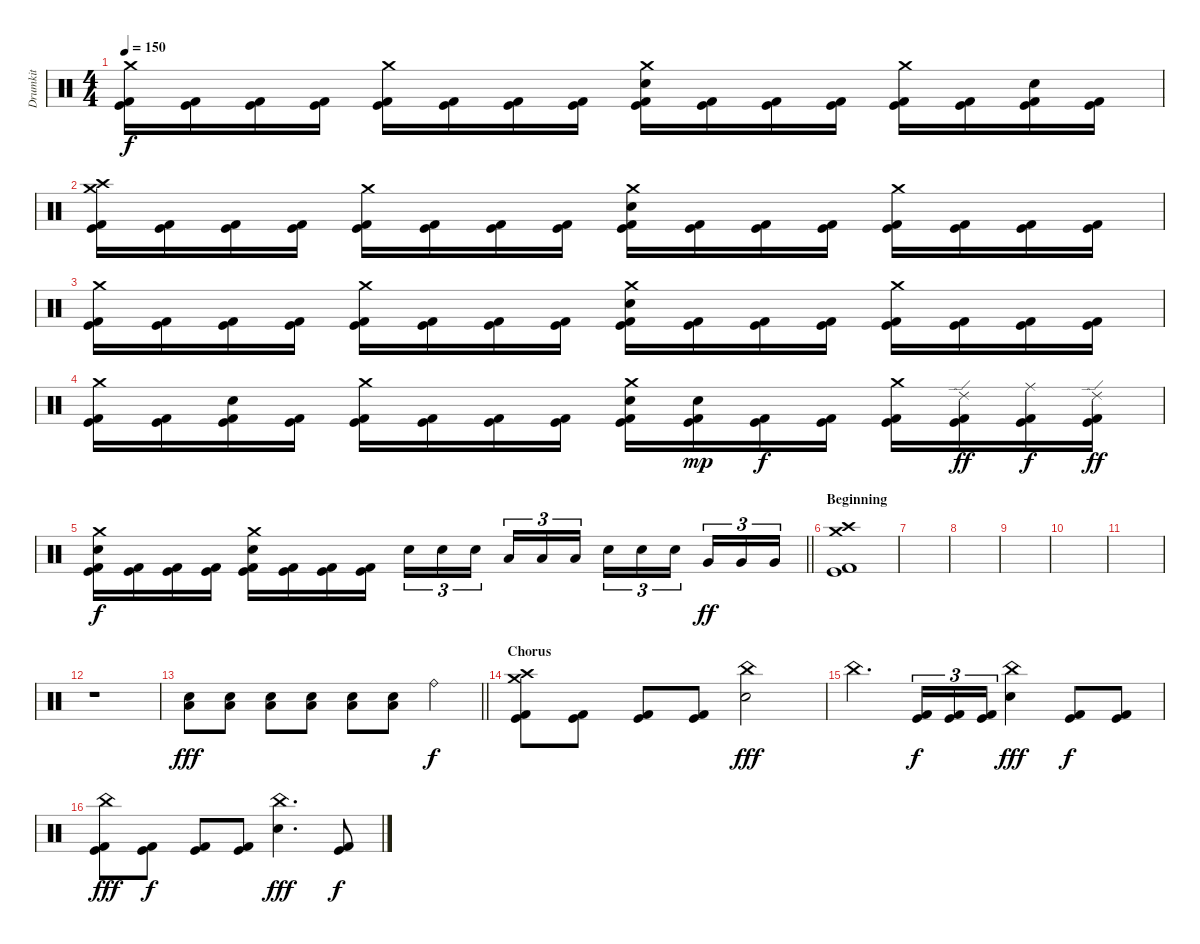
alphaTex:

\track ("Drumkit" "Drumkit") {instrument percussion}
\staff {score}
\articulation defaults
\ts (4 4)
\tempo 150
\clef neutral
\ks c
("Crash medium (hit)" "Kick (hit)" "Kick (hit) 2").16{dy f} ("Kick (hit)" "Kick (hit) 2").16 ("Kick (hit)" "Kick (hit) 2").16 ("Kick (hit)" "Kick (hit) 2").16 ("Crash medium (hit)" "Kick (hit)" "Kick (hit) 2").16 ("Kick (hit)" "Kick (hit) 2").16 ("Kick (hit)" "Kick (hit) 2").16 ("Kick (hit)" "Kick (hit) 2").16 ("Crash medium (hit)" "Electric Snare (hit)" "Kick (hit)" "Kick (hit) 2").16 ("Kick (hit)" "Kick (hit) 2").16 ("Kick (hit)" "Kick (hit) 2").16 ("Kick (hit)" "Kick (hit) 2").16 ("Crash medium (hit)" "Kick (hit)" "Kick (hit) 2").16 ("Kick (hit)" "Kick (hit) 2").16 ("Electric Snare (hit)" "Kick (hit)" "Kick (hit) 2").16 ("Kick (hit)" "Kick (hit) 2").16 |
("Crash high (hit)" "Crash medium (hit)" "Kick (hit)" "Kick (hit) 2").16 ("Kick (hit)" "Kick (hit) 2").16 ("Kick (hit)" "Kick (hit) 2").16 ("Kick (hit)" "Kick (hit) 2").16 ("Crash medium (hit)" "Kick (hit)" "Kick (hit) 2").16 ("Kick (hit)" "Kick (hit) 2").16 ("Kick (hit)" "Kick (hit) 2").16 ("Kick (hit)" "Kick (hit) 2").16 ("Crash medium (hit)" "Electric Snare (hit)" "Kick (hit)" "Kick (hit) 2").16 ("Kick (hit)" "Kick (hit) 2").16 ("Kick (hit)" "Kick (hit) 2").16 ("Kick (hit)" "Kick (hit) 2").16 ("Crash medium (hit)" "Kick (hit)" "Kick (hit) 2").16 ("Kick (hit)" "Kick (hit) 2").16 ("Kick (hit)" "Kick (hit) 2").16 ("Kick (hit)" "Kick (hit) 2").16 |
("Crash medium (hit)" "Kick (hit)" "Kick (hit) 2").16 ("Kick (hit)" "Kick (hit) 2").16 ("Kick (hit)" "Kick (hit) 2").16 ("Kick (hit)" "Kick (hit) 2").16 ("Crash medium (hit)" "Kick (hit)" "Kick (hit) 2").16 ("Kick (hit)" "Kick (hit) 2").16 ("Kick (hit)" "Kick (hit) 2").16 ("Kick (hit)" "Kick (hit) 2").16 ("Crash medium (hit)" "Electric Snare (hit)" "Kick (hit)" "Kick (hit) 2").16 ("Kick (hit)" "Kick (hit) 2").16 ("Kick (hit)" "Kick (hit) 2").16 ("Kick (hit)" "Kick (hit) 2").16 ("Crash medium (hit)" "Kick (hit)" "Kick (hit) 2").16 ("Kick (hit)" "Kick (hit) 2").16 ("Kick (hit)" "Kick (hit) 2").16 ("Kick (hit)" "Kick (hit) 2").16 |
("Crash medium (hit)" "Kick (hit)" "Kick (hit) 2").16 ("Kick (hit)" "Kick (hit) 2").16 ("Electric Snare (hit)" "Kick (hit)" "Kick (hit) 2").16 ("Kick (hit)" "Kick (hit) 2").16 ("Crash medium (hit)" "Kick (hit)" "Kick (hit) 2").16 ("Kick (hit)" "Kick (hit) 2").16 ("Kick (hit)" "Kick (hit) 2").16 ("Kick (hit)" "Kick (hit) 2").16 ("Crash medium (hit)" "Electric Snare (hit)" "Kick (hit)" "Kick (hit) 2").16 ("Electric Snare (hit)" "Kick (hit)" "Kick (hit) 2").16{dy mp} ("Kick (hit)" "Kick (hit) 2").16{dy f} ("Kick (hit)" "Kick (hit) 2").16 ("Crash medium (hit)" "Kick (hit)" "Kick (hit) 2").16 ("Ride (edge) 2" "Kick (hit)" "Kick (hit) 2").16{dy ff} ("Ride (middle)" "Kick (hit)" "Kick (hit) 2").16{dy f} ("Ride (edge) 2" "Kick (hit)" "Kick (hit) 2").16{dy ff} |
\barLineRight lightlight
("Crash medium (hit)" "Electric Snare (hit)" "Kick (hit)" "Kick (hit) 2").16{dy f} ("Kick (hit)" "Kick (hit) 2").16 ("Kick (hit)" "Kick (hit) 2").16 ("Kick (hit)" "Kick (hit) 2").16 ("Crash medium (hit)" "Electric Snare (hit)" "Kick (hit)" "Kick (hit) 2").16 ("Kick (hit)" "Kick (hit) 2").16 ("Kick (hit)" "Kick (hit) 2").16 ("Kick (hit)" "Kick (hit) 2").16 "Electric Snare (hit)".16{tu (3 2)} "Electric Snare (hit)".16{tu (3 2)} "Electric Snare (hit)".16{tu (3 2) beam splitsecondary} "Low Tom (hit)".16{tu (3 2)} "Low Tom (hit)".16{tu (3 2)} "Low Tom (hit)".16{tu (3 2)} "Electric Snare (hit)".16{tu (3 2)} "Electric Snare (hit)".16{tu (3 2)} "Electric Snare (hit)".16{tu (3 2) beam splitsecondary} "Very Low Tom (hit)".16{tu (3 2) dy ff} "Very Low Tom (hit)".16{tu (3 2)} "Very Low Tom (hit)".16{tu (3 2)} |
\section ("" "Beginning")
("Crash high (hit)" "Crash medium (hit)" "Kick (hit)" "Kick (hit) 2").1 |
|
|
|
|
|
r.1{volume 14} |
\barLineRight lightlight
("Low Floor Tom (hit)" "Electric Snare (hit)").8{bu 120 dy fff} ("Low Floor Tom (hit)" "Electric Snare (hit)").8{bu 120} ("Low Floor Tom (hit)" "Electric Snare (hit)").8{bu 120} ("Low Floor Tom (hit)" "Electric Snare (hit)").8{bu 120} ("Low Floor Tom (hit)" "Electric Snare (hit)").8{bu 120} ("Low Floor Tom (hit)" "Electric Snare (hit)").8{bu 120} "Ride (bell)".4{dy f} |
\section ("" "Chorus")
("Crash high (hit)" "Crash medium (hit)" "Kick (hit)" "Kick (hit) 2").8 ("Kick (hit)" "Kick (hit) 2").8 ("Kick (hit)" "Kick (hit) 2").8 ("Kick (hit)" "Kick (hit) 2").8 ("China (hit)" "Electric Snare (hit)").2{dy fff} |
"China (hit)".4{d} ("Kick (hit)" "Kick (hit) 2").16{tu (3 2) dy f} ("Kick (hit)" "Kick (hit) 2").16{tu (3 2)} ("Kick (hit)" "Kick (hit) 2").16{tu (3 2)} ("China (hit)" "Electric Snare (hit)").4{dy fff} ("Kick (hit)" "Kick (hit) 2").8{dy f} ("Kick (hit)" "Kick (hit) 2").8 |
("China (hit)" "Kick (hit)" "Kick (hit) 2").8{dy fff} ("Kick (hit)" "Kick (hit) 2").8{dy f} ("Kick (hit)" "Kick (hit) 2").8 ("Kick (hit)" "Kick (hit) 2").8 ("China (hit)" "Electric Snare (hit)").4{d dy fff} ("Kick (hit)" "Kick (hit) 2").8{dy f}
